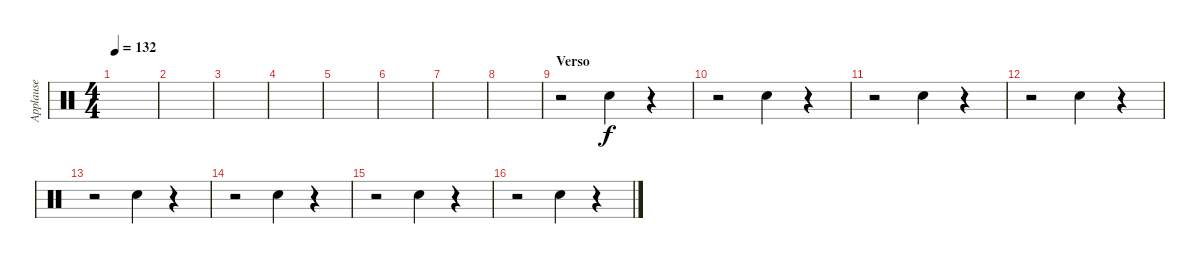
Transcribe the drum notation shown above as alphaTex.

\track ("Applause" "Applause") {instrument percussion}
\staff {score}
\articulation defaults
\ts (4 4)
\tempo 132
\clef neutral
\ks c
|
|
|
|
|
|
|
|
\section ("" "Verso")
r.2 "Hand Clap (hit)".4 r.4 |
r.2 "Hand Clap (hit)".4 r.4 |
r.2 "Hand Clap (hit)".4 r.4 |
r.2 "Hand Clap (hit)".4 r.4 |
r.2 "Hand Clap (hit)".4 r.4 |
r.2 "Hand Clap (hit)".4 r.4 |
r.2 "Hand Clap (hit)".4 r.4 |
r.2 "Hand Clap (hit)".4 r.4
